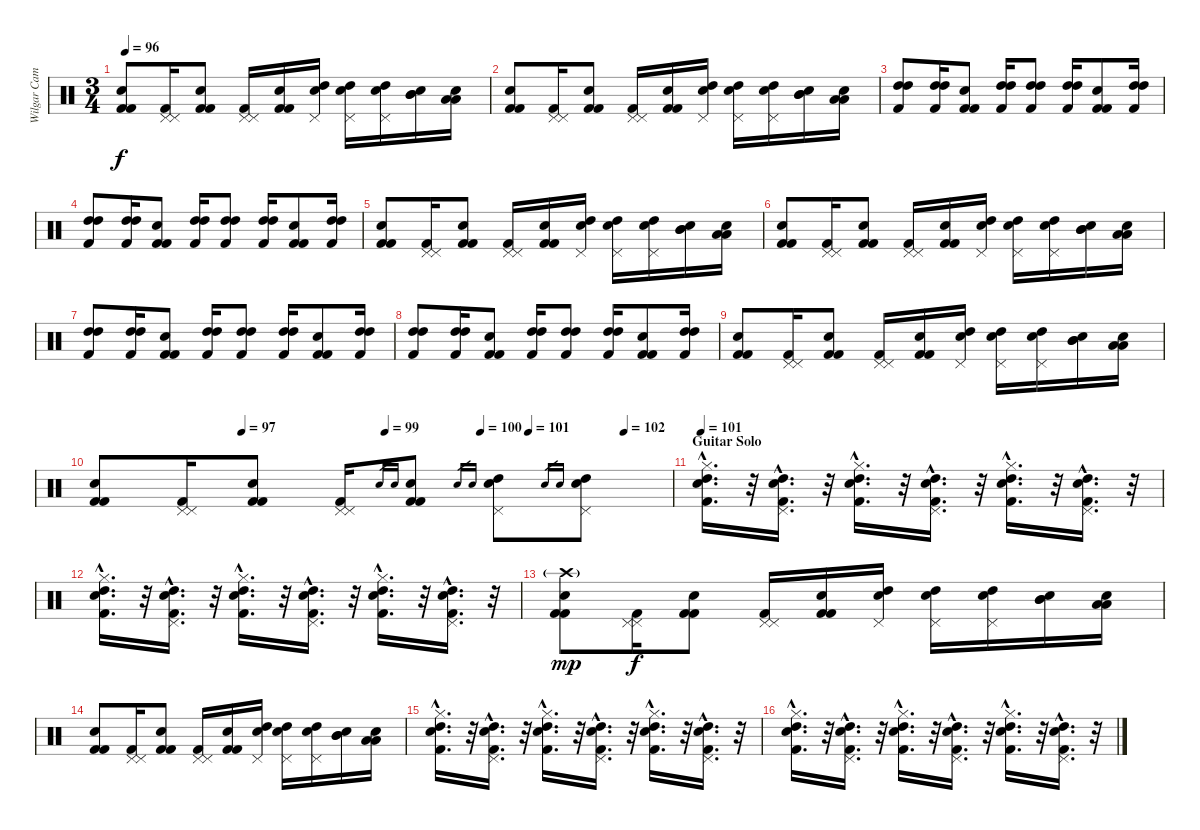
\track ("Wilgar Campbell" "Wilgar Cam") {instrument percussion}
\staff {score}
\articulation defaults
\ts (3 4)
\tempo 96
\clef neutral
\ks c
("Electric Snare (hit)" "Kick (hit) 2" "Kick (hit) 2").8{dy f} ("Pedal Hi-Hat (hit)" "Pedal Hi-Hat (hit)" "Kick (hit) 2").16 ("Snare (hit) 2" "Kick (hit) 2" "Kick (hit) 2").8 ("Pedal Hi-Hat (hit)" "Pedal Hi-Hat (hit)" "Kick (hit) 2").16 ("Snare (hit) 2" "Kick (hit) 2" "Kick (hit) 2").16 ("Electric Snare (hit)" "Pedal Hi-Hat (hit)" "High Tom (hit)").16 ("Electric Snare (hit)" "Pedal Hi-Hat (hit)" "High Tom (hit)").16 ("Electric Snare (hit)" "Pedal Hi-Hat (hit)" "High Tom (hit)").16 ("Electric Snare (hit)" "Mid Tom (hit)" "Mid Tom (hit)").16 ("Electric Snare (hit)" "Low Tom (hit)" "Low Tom (hit)").16 |
("Electric Snare (hit)" "Kick (hit) 2" "Kick (hit) 2").8 ("Pedal Hi-Hat (hit)" "Pedal Hi-Hat (hit)" "Kick (hit) 2").16 ("Snare (hit) 2" "Kick (hit) 2" "Kick (hit) 2").8 ("Pedal Hi-Hat (hit)" "Pedal Hi-Hat (hit)" "Kick (hit) 2").16 ("Snare (hit) 2" "Kick (hit) 2" "Kick (hit) 2").16 ("Electric Snare (hit)" "Pedal Hi-Hat (hit)" "High Tom (hit)").16 ("Electric Snare (hit)" "Pedal Hi-Hat (hit)" "High Tom (hit)").16 ("Electric Snare (hit)" "Pedal Hi-Hat (hit)" "High Tom (hit)").16 ("Electric Snare (hit)" "Mid Tom (hit)" "Mid Tom (hit)").16 ("Electric Snare (hit)" "Low Tom (hit)" "Low Tom (hit)").16 |
("High Tom (hit)" "High Tom (hit)" "Kick (hit) 2").8 ("High Tom (hit)" "High Tom (hit)" "Kick (hit) 2").16 ("Snare (hit) 2" "Kick (hit) 2" "Kick (hit) 2").8 ("High Tom (hit)" "High Tom (hit)" "Kick (hit) 2").16 ("High Tom (hit)" "High Tom (hit)" "Kick (hit) 2").8 ("High Tom (hit)" "High Tom (hit)" "Kick (hit) 2").16 ("Snare (hit) 2" "Kick (hit) 2" "Kick (hit) 2").8 ("High Tom (hit)" "High Tom (hit)" "Kick (hit) 2").16 |
("High Tom (hit)" "High Tom (hit)" "Kick (hit) 2").8 ("High Tom (hit)" "High Tom (hit)" "Kick (hit) 2").16 ("Snare (hit) 2" "Kick (hit) 2" "Kick (hit) 2").8 ("High Tom (hit)" "High Tom (hit)" "Kick (hit) 2").16 ("High Tom (hit)" "High Tom (hit)" "Kick (hit) 2").8 ("High Tom (hit)" "High Tom (hit)" "Kick (hit) 2").16 ("Snare (hit) 2" "Kick (hit) 2" "Kick (hit) 2").8 ("High Tom (hit)" "High Tom (hit)" "Kick (hit) 2").16 |
("Electric Snare (hit)" "Kick (hit) 2" "Kick (hit) 2").8 ("Pedal Hi-Hat (hit)" "Pedal Hi-Hat (hit)" "Kick (hit) 2").16 ("Snare (hit) 2" "Kick (hit) 2" "Kick (hit) 2").8 ("Pedal Hi-Hat (hit)" "Pedal Hi-Hat (hit)" "Kick (hit) 2").16 ("Snare (hit) 2" "Kick (hit) 2" "Kick (hit) 2").16 ("Electric Snare (hit)" "Pedal Hi-Hat (hit)" "High Tom (hit)").16 ("Electric Snare (hit)" "Pedal Hi-Hat (hit)" "High Tom (hit)").16 ("Electric Snare (hit)" "Pedal Hi-Hat (hit)" "High Tom (hit)").16 ("Electric Snare (hit)" "Mid Tom (hit)" "Mid Tom (hit)").16 ("Electric Snare (hit)" "Low Tom (hit)" "Low Tom (hit)").16 |
("Electric Snare (hit)" "Kick (hit) 2" "Kick (hit) 2").8 ("Pedal Hi-Hat (hit)" "Pedal Hi-Hat (hit)" "Kick (hit) 2").16 ("Snare (hit) 2" "Kick (hit) 2" "Kick (hit) 2").8 ("Pedal Hi-Hat (hit)" "Pedal Hi-Hat (hit)" "Kick (hit) 2").16 ("Snare (hit) 2" "Kick (hit) 2" "Kick (hit) 2").16 ("Electric Snare (hit)" "Pedal Hi-Hat (hit)" "High Tom (hit)").16 ("Electric Snare (hit)" "Pedal Hi-Hat (hit)" "High Tom (hit)").16 ("Electric Snare (hit)" "Pedal Hi-Hat (hit)" "High Tom (hit)").16 ("Electric Snare (hit)" "Mid Tom (hit)" "Mid Tom (hit)").16 ("Electric Snare (hit)" "Low Tom (hit)" "Low Tom (hit)").16 |
("High Tom (hit)" "High Tom (hit)" "Kick (hit) 2").8 ("High Tom (hit)" "High Tom (hit)" "Kick (hit) 2").16 ("Snare (hit) 2" "Kick (hit) 2" "Kick (hit) 2").8 ("High Tom (hit)" "High Tom (hit)" "Kick (hit) 2").16 ("High Tom (hit)" "High Tom (hit)" "Kick (hit) 2").8 ("High Tom (hit)" "High Tom (hit)" "Kick (hit) 2").16 ("Snare (hit) 2" "Kick (hit) 2" "Kick (hit) 2").8 ("High Tom (hit)" "High Tom (hit)" "Kick (hit) 2").16 |
("High Tom (hit)" "High Tom (hit)" "Kick (hit) 2").8 ("High Tom (hit)" "High Tom (hit)" "Kick (hit) 2").16 ("Snare (hit) 2" "Kick (hit) 2" "Kick (hit) 2").8 ("High Tom (hit)" "High Tom (hit)" "Kick (hit) 2").16 ("High Tom (hit)" "High Tom (hit)" "Kick (hit) 2").8 ("High Tom (hit)" "High Tom (hit)" "Kick (hit) 2").16 ("Snare (hit) 2" "Kick (hit) 2" "Kick (hit) 2").8 ("High Tom (hit)" "High Tom (hit)" "Kick (hit) 2").16 |
("Electric Snare (hit)" "Kick (hit) 2" "Kick (hit) 2").8 ("Pedal Hi-Hat (hit)" "Pedal Hi-Hat (hit)" "Kick (hit) 2").16 ("Snare (hit) 2" "Kick (hit) 2" "Kick (hit) 2").8 ("Pedal Hi-Hat (hit)" "Pedal Hi-Hat (hit)" "Kick (hit) 2").16 ("Snare (hit) 2" "Kick (hit) 2" "Kick (hit) 2").16 ("Electric Snare (hit)" "Pedal Hi-Hat (hit)" "High Tom (hit)").16 ("Electric Snare (hit)" "Pedal Hi-Hat (hit)" "High Tom (hit)").16 ("Electric Snare (hit)" "Pedal Hi-Hat (hit)" "High Tom (hit)").16 ("Electric Snare (hit)" "Mid Tom (hit)" "Mid Tom (hit)").16 ("Electric Snare (hit)" "Low Tom (hit)" "Low Tom (hit)").16 |
\tempo (97 0.25)
\tempo (99 0.5)
\tempo (100 0.6666666666666666)
\tempo (101 0.75)
\tempo (102 0.9166666666666666)
("Electric Snare (hit)" "Kick (hit) 2" "Kick (hit) 2").8 ("Pedal Hi-Hat (hit)" "Pedal Hi-Hat (hit)" "Kick (hit) 2").16 ("Snare (hit) 2" "Kick (hit) 2" "Kick (hit) 2").8 ("Pedal Hi-Hat (hit)" "Pedal Hi-Hat (hit)" "Kick (hit) 2").16 "Electric Snare (hit)".16{gr} "Electric Snare (hit)".16{gr} ("Snare (hit) 2" "Kick (hit) 2" "Kick (hit) 2").8 "Snare (hit) 2".16{gr} "Electric Snare (hit)".16{gr} ("Electric Snare (hit)" "Pedal Hi-Hat (hit)" "High Tom (hit)").8 "Snare (hit) 2".16{gr} "Electric Snare (hit)".16{gr} ("Electric Snare (hit)" "Pedal Hi-Hat (hit)" "High Tom (hit)").8 |
\section ("" "Guitar Solo")
\tempo 101
("Hi-Hat (closed)"{hac} "Snare (hit) 2"{hac} "High Tom (hit)"{hac} "Kick (hit) 2"{hac}).16{d} r.32 ("Pedal Hi-Hat (hit)"{hac} "Snare (hit) 2"{hac} "High Tom (hit)"{hac} "Kick (hit) 2"{hac}).16{d} r.32 ("Hi-Hat (closed)"{hac} "Snare (hit) 2"{hac} "High Tom (hit)"{hac} "Kick (hit) 2"{hac}).16{d} r.32 ("Pedal Hi-Hat (hit)"{hac} "Snare (hit) 2"{hac} "High Tom (hit)"{hac} "Kick (hit) 2"{hac}).16{d} r.32 ("Hi-Hat (closed)"{hac} "Snare (hit) 2"{hac} "High Tom (hit)"{hac} "Kick (hit) 2"{hac}).16{d} r.32 ("Pedal Hi-Hat (hit)"{hac} "Snare (hit) 2"{hac} "High Tom (hit)"{hac} "Kick (hit) 2"{hac}).16{d} r.32 |
("Hi-Hat (closed)"{hac} "Snare (hit) 2"{hac} "High Tom (hit)"{hac} "Kick (hit) 2"{hac}).16{d} r.32 ("Pedal Hi-Hat (hit)"{hac} "Snare (hit) 2"{hac} "High Tom (hit)"{hac} "Kick (hit) 2"{hac}).16{d} r.32 ("Hi-Hat (closed)"{hac} "Snare (hit) 2"{hac} "High Tom (hit)"{hac} "Kick (hit) 2"{hac}).16{d} r.32 ("Pedal Hi-Hat (hit)"{hac} "Snare (hit) 2"{hac} "High Tom (hit)"{hac} "Kick (hit) 2"{hac}).16{d} r.32 ("Hi-Hat (closed)"{hac} "Snare (hit) 2"{hac} "High Tom (hit)"{hac} "Kick (hit) 2"{hac}).16{d} r.32 ("Pedal Hi-Hat (hit)"{hac} "Snare (hit) 2"{hac} "High Tom (hit)"{hac} "Kick (hit) 2"{hac}).16{d} r.32 |
("Crash high (hit)"{g} "Electric Snare (hit)" "Kick (hit) 2" "Kick (hit) 2").8{dy mp} ("Pedal Hi-Hat (hit)" "Pedal Hi-Hat (hit)" "Kick (hit) 2").16{dy f} ("Snare (hit) 2" "Kick (hit) 2" "Kick (hit) 2").8 ("Pedal Hi-Hat (hit)" "Pedal Hi-Hat (hit)" "Kick (hit) 2").16 ("Snare (hit) 2" "Kick (hit) 2" "Kick (hit) 2").16 ("Electric Snare (hit)" "Pedal Hi-Hat (hit)" "High Tom (hit)").16 ("Electric Snare (hit)" "Pedal Hi-Hat (hit)" "High Tom (hit)").16 ("Electric Snare (hit)" "Pedal Hi-Hat (hit)" "High Tom (hit)").16 ("Electric Snare (hit)" "Mid Tom (hit)" "Mid Tom (hit)").16 ("Electric Snare (hit)" "Low Tom (hit)" "Low Tom (hit)").16 |
("Electric Snare (hit)" "Kick (hit) 2" "Kick (hit) 2").8 ("Pedal Hi-Hat (hit)" "Pedal Hi-Hat (hit)" "Kick (hit) 2").16 ("Snare (hit) 2" "Kick (hit) 2" "Kick (hit) 2").8 ("Pedal Hi-Hat (hit)" "Pedal Hi-Hat (hit)" "Kick (hit) 2").16 ("Snare (hit) 2" "Kick (hit) 2" "Kick (hit) 2").16 ("Electric Snare (hit)" "Pedal Hi-Hat (hit)" "High Tom (hit)").16 ("Electric Snare (hit)" "Pedal Hi-Hat (hit)" "High Tom (hit)").16 ("Electric Snare (hit)" "Pedal Hi-Hat (hit)" "High Tom (hit)").16 ("Electric Snare (hit)" "Mid Tom (hit)" "Mid Tom (hit)").16 ("Electric Snare (hit)" "Low Tom (hit)" "Low Tom (hit)").16 |
("Hi-Hat (closed)"{hac} "Snare (hit) 2"{hac} "High Tom (hit)"{hac} "Kick (hit) 2"{hac}).16{d} r.32 ("Pedal Hi-Hat (hit)"{hac} "Snare (hit) 2"{hac} "High Tom (hit)"{hac} "Kick (hit) 2"{hac}).16{d} r.32 ("Hi-Hat (closed)"{hac} "Snare (hit) 2"{hac} "High Tom (hit)"{hac} "Kick (hit) 2"{hac}).16{d} r.32 ("Pedal Hi-Hat (hit)"{hac} "Snare (hit) 2"{hac} "High Tom (hit)"{hac} "Kick (hit) 2"{hac}).16{d} r.32 ("Hi-Hat (closed)"{hac} "Snare (hit) 2"{hac} "High Tom (hit)"{hac} "Kick (hit) 2"{hac}).16{d} r.32 ("Pedal Hi-Hat (hit)"{hac} "Snare (hit) 2"{hac} "High Tom (hit)"{hac} "Kick (hit) 2"{hac}).16{d} r.32 |
("Hi-Hat (closed)"{hac} "Snare (hit) 2"{hac} "High Tom (hit)"{hac} "Kick (hit) 2"{hac}).16{d} r.32 ("Pedal Hi-Hat (hit)"{hac} "Snare (hit) 2"{hac} "High Tom (hit)"{hac} "Kick (hit) 2"{hac}).16{d} r.32 ("Hi-Hat (closed)"{hac} "Snare (hit) 2"{hac} "High Tom (hit)"{hac} "Kick (hit) 2"{hac}).16{d} r.32 ("Pedal Hi-Hat (hit)"{hac} "Snare (hit) 2"{hac} "High Tom (hit)"{hac} "Kick (hit) 2"{hac}).16{d} r.32 ("Hi-Hat (closed)"{hac} "Snare (hit) 2"{hac} "High Tom (hit)"{hac} "Kick (hit) 2"{hac}).16{d} r.32 ("Pedal Hi-Hat (hit)"{hac} "Snare (hit) 2"{hac} "High Tom (hit)"{hac} "Kick (hit) 2"{hac}).16{d} r.32
